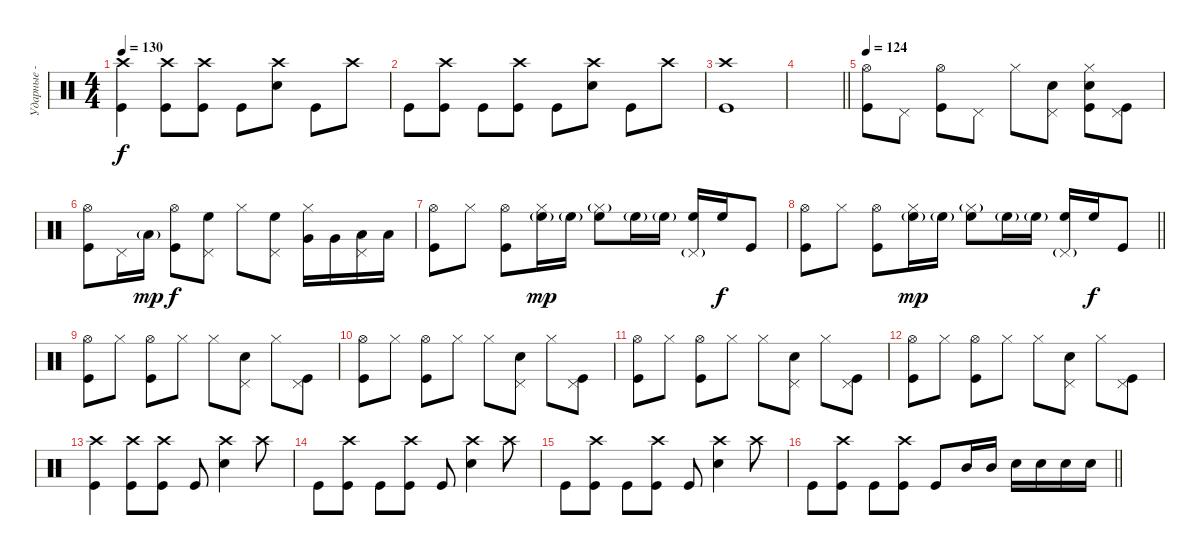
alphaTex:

\track ("Ударные - Джек Уайт" "Ударные - ") {instrument percussion}
\staff {score}
\articulation defaults
\ts (4 4)
\tempo 130
\clef neutral
\ks c
("Crash high (hit)" "Kick (hit)").4{dy f} ("Crash high (hit)" "Kick (hit)").8 ("Crash high (hit)" "Kick (hit)").8 "Kick (hit)".8 ("Crash high (hit)" "Electric Snare (hit)").8 "Kick (hit)".8 "Crash high (hit)".8 |
"Kick (hit)".8 ("Crash high (hit)" "Kick (hit)").8 "Kick (hit)".8 ("Crash high (hit)" "Kick (hit)").8 "Kick (hit)".8 ("Crash high (hit)" "Electric Snare (hit)").8 "Kick (hit)".8 "Crash high (hit)".8 |
("Crash high (hit)" "Kick (hit)").1 |
\barLineRight lightlight
|
\tempo 124
("Hi-Hat (open)" "Kick (hit)").8 "Pedal Hi-Hat (hit)".8 ("Hi-Hat (open)" "Kick (hit)").8 "Pedal Hi-Hat (hit)".8 "Hi-Hat (closed)".8 ("Pedal Hi-Hat (hit)" "Electric Snare (hit)").8 ("Hi-Hat (closed)" "Electric Snare (hit)" "Kick (hit)").8 ("Pedal Hi-Hat (hit)" "Kick (hit)").8 |
("Hi-Hat (open)" "Kick (hit)").8 "Pedal Hi-Hat (hit)".16 "Low Tom (hit)"{g}.16{dy mp} ("Hi-Hat (open)" "Kick (hit)").8{dy f} ("Pedal Hi-Hat (hit)" "High Floor Tom (hit)").8 "Hi-Hat (closed)".8 ("Pedal Hi-Hat (hit)" "High Floor Tom (hit)").8 ("Hi-Hat (closed)" "Very Low Tom (hit)").16 "Very Low Tom (hit)".16 ("Pedal Hi-Hat (hit)" "Low Floor Tom (hit)").16 "Low Floor Tom (hit)".16 |
("Hi-Hat (open)" "Kick (hit)").8 "Hi-Hat (closed)".8 ("Hi-Hat (open)" "Kick (hit)").8 ("Hi-Hat (closed)" "High Floor Tom (hit)"{g}).16{dy mp} "High Floor Tom (hit)"{g}.16 ("Hi-Hat (closed)"{g} "High Floor Tom (hit)").8 "High Floor Tom (hit)"{g}.16 "High Floor Tom (hit)"{g}.16 ("Pedal Hi-Hat (hit)"{g} "High Floor Tom (hit)").16 "High Floor Tom (hit)".16{dy f} "Kick (hit)".8 |
\barLineRight lightlight
("Hi-Hat (open)" "Kick (hit)").8 "Hi-Hat (closed)".8 ("Hi-Hat (open)" "Kick (hit)").8 ("Hi-Hat (closed)" "High Floor Tom (hit)"{g}).16{dy mp} "High Floor Tom (hit)"{g}.16 ("Hi-Hat (closed)"{g} "High Floor Tom (hit)").8 "High Floor Tom (hit)"{g}.16 "High Floor Tom (hit)"{g}.16 ("Pedal Hi-Hat (hit)"{g} "High Floor Tom (hit)").16 "High Floor Tom (hit)".16{dy f} "Kick (hit)".8 |
("Hi-Hat (open)" "Kick (hit)").8 "Hi-Hat (closed)".8 ("Hi-Hat (open)" "Kick (hit)").8 "Hi-Hat (closed)".8 "Hi-Hat (closed)".8 ("Pedal Hi-Hat (hit)" "Electric Snare (hit)").8 "Hi-Hat (closed)".8 ("Pedal Hi-Hat (hit)" "Kick (hit)").8 |
("Hi-Hat (open)" "Kick (hit)").8 "Hi-Hat (closed)".8 ("Hi-Hat (open)" "Kick (hit)").8 "Hi-Hat (closed)".8 "Hi-Hat (closed)".8 ("Pedal Hi-Hat (hit)" "Electric Snare (hit)").8 "Hi-Hat (closed)".8 ("Pedal Hi-Hat (hit)" "Kick (hit)").8 |
("Hi-Hat (open)" "Kick (hit)").8 "Hi-Hat (closed)".8 ("Hi-Hat (open)" "Kick (hit)").8 "Hi-Hat (closed)".8 "Hi-Hat (closed)".8 ("Pedal Hi-Hat (hit)" "Electric Snare (hit)").8 "Hi-Hat (closed)".8 ("Pedal Hi-Hat (hit)" "Kick (hit)").8 |
("Hi-Hat (open)" "Kick (hit)").8 "Hi-Hat (closed)".8 ("Hi-Hat (open)" "Kick (hit)").8 "Hi-Hat (closed)".8 "Hi-Hat (closed)".8 ("Pedal Hi-Hat (hit)" "Electric Snare (hit)").8 "Hi-Hat (closed)".8 ("Pedal Hi-Hat (hit)" "Kick (hit)").8 |
("Crash high (hit)" "Kick (hit)").4 ("Crash high (hit)" "Kick (hit)").8 ("Crash high (hit)" "Kick (hit)").8 "Kick (hit)".8 ("Crash high (hit)" "Electric Snare (hit)").4 "Crash high (hit)".8 |
"Kick (hit)".8 ("Crash high (hit)" "Kick (hit)").8 "Kick (hit)".8 ("Crash high (hit)" "Kick (hit)").8 "Kick (hit)".8 ("Crash high (hit)" "Electric Snare (hit)").4 "Crash high (hit)".8 |
"Kick (hit)".8 ("Crash high (hit)" "Kick (hit)").8 "Kick (hit)".8 ("Crash high (hit)" "Kick (hit)").8 "Kick (hit)".8 ("Crash high (hit)" "Electric Snare (hit)").4 "Crash high (hit)".8 |
\barLineRight lightlight "Kick (hit)".8
("Crash high (hit)" "Kick (hit)").8 "Kick (hit)".8 ("Crash high (hit)" "Kick (hit)").8 "Kick (hit)".8 "Mid Tom (hit)".16 "Mid Tom (hit)".16 "Snare (hit) 2".16 "Snare (hit) 2".16 "Snare (hit) 2".16 "Snare (hit) 2".16
